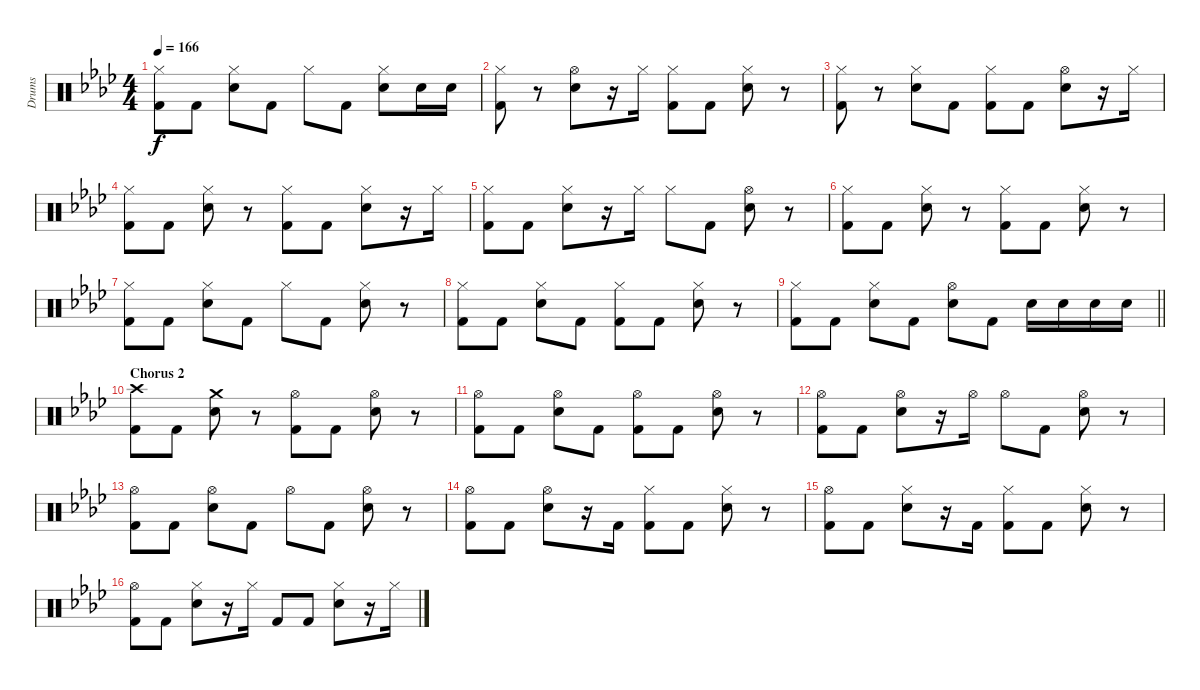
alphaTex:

\track ("Drums" "Drums") {instrument percussion}
\staff {score}
\articulation defaults
\ts (4 4)
\tempo 166
\clef neutral
\ks ab
("Hi-Hat (closed)" "Kick (hit) 2").8{dy f} "Kick (hit) 2".8 ("Hi-Hat (closed)" "Electric Snare (hit)").8 "Kick (hit) 2".8 "Hi-Hat (closed)".8 "Kick (hit) 2".8 ("Hi-Hat (closed)" "Electric Snare (hit)").8 "Electric Snare (hit)".16 "Electric Snare (hit)".16 |
("Hi-Hat (closed)" "Kick (hit) 2").8 r.8 ("Hi-Hat (open)" "Electric Snare (hit)").8 r.16 "Hi-Hat (closed)".16 ("Hi-Hat (closed)" "Kick (hit) 2").8 "Kick (hit) 2".8 ("Hi-Hat (closed)" "Electric Snare (hit)").8 r.8 |
("Hi-Hat (closed)" "Kick (hit) 2").8 r.8 ("Hi-Hat (closed)" "Electric Snare (hit)").8 "Kick (hit) 2".8 ("Hi-Hat (closed)" "Kick (hit) 2").8 "Kick (hit) 2".8 ("Hi-Hat (open)" "Electric Snare (hit)").8 r.16 "Hi-Hat (closed)".16 |
("Hi-Hat (closed)" "Kick (hit) 2").8 "Kick (hit) 2".8 ("Hi-Hat (closed)" "Electric Snare (hit)").8 r.8 ("Hi-Hat (closed)" "Kick (hit) 2").8 "Kick (hit) 2".8 ("Hi-Hat (closed)" "Electric Snare (hit)").8 r.16 "Hi-Hat (closed)".16 |
("Hi-Hat (closed)" "Kick (hit) 2").8 "Kick (hit) 2".8 ("Hi-Hat (closed)" "Electric Snare (hit)").8 r.16 "Hi-Hat (closed)".16 "Hi-Hat (closed)".8 "Kick (hit) 2".8 ("Hi-Hat (open)" "Electric Snare (hit)").8 r.8 |
("Hi-Hat (closed)" "Kick (hit) 2").8 "Kick (hit) 2".8 ("Hi-Hat (closed)" "Electric Snare (hit)").8 r.8 ("Hi-Hat (closed)" "Kick (hit) 2").8 "Kick (hit) 2".8 ("Hi-Hat (closed)" "Electric Snare (hit)").8 r.8 |
("Hi-Hat (closed)" "Kick (hit) 2").8 "Kick (hit) 2".8 ("Hi-Hat (closed)" "Electric Snare (hit)").8 "Kick (hit) 2".8 "Hi-Hat (closed)".8 "Kick (hit) 2".8 ("Hi-Hat (closed)" "Electric Snare (hit)").8 r.8 |
("Hi-Hat (closed)" "Kick (hit) 2").8 "Kick (hit) 2".8 ("Hi-Hat (closed)" "Electric Snare (hit)").8 "Kick (hit) 2".8 ("Hi-Hat (closed)" "Kick (hit) 2").8 "Kick (hit) 2".8 ("Hi-Hat (closed)" "Electric Snare (hit)").8 r.8 |
\barLineRight lightlight
("Hi-Hat (closed)" "Kick (hit) 2").8 "Kick (hit) 2".8 ("Hi-Hat (closed)" "Electric Snare (hit)").8 "Kick (hit) 2".8 ("Hi-Hat (open)" "Electric Snare (hit)").8 "Kick (hit) 2".8 "Electric Snare (hit)".16 "Electric Snare (hit)".16 "Electric Snare (hit)".16 "Electric Snare (hit)".16 |
\section ("" "Chorus 2")
("Crash high (hit)" "Kick (hit) 2").8 "Kick (hit) 2".8 ("Crash medium (hit)" "Electric Snare (hit)").8 r.8 ("Hi-Hat (open)" "Kick (hit) 2").8 "Kick (hit) 2".8 ("Hi-Hat (open)" "Electric Snare (hit)").8 r.8 |
("Hi-Hat (open)" "Kick (hit) 2").8 "Kick (hit) 2".8 ("Hi-Hat (open)" "Electric Snare (hit)").8 "Kick (hit) 2".8 ("Hi-Hat (open)" "Kick (hit) 2").8 "Kick (hit) 2".8 ("Hi-Hat (open)" "Electric Snare (hit)").8 r.8 |
("Hi-Hat (open)" "Kick (hit) 2").8 "Kick (hit) 2".8 ("Hi-Hat (open)" "Electric Snare (hit)").8 r.16 "Hi-Hat (open)".16 "Hi-Hat (open)".8 "Kick (hit) 2".8 ("Hi-Hat (open)" "Electric Snare (hit)").8 r.8 |
("Hi-Hat (open)" "Kick (hit) 2").8 "Kick (hit) 2".8 ("Hi-Hat (open)" "Electric Snare (hit)").8 "Kick (hit) 2".8 "Hi-Hat (open)".8 "Kick (hit) 2".8 ("Hi-Hat (open)" "Electric Snare (hit)").8 r.8 |
("Hi-Hat (open)" "Kick (hit) 2").8 "Kick (hit) 2".8 ("Hi-Hat (open)" "Electric Snare (hit)").8 r.16 "Kick (hit) 2".16 ("Hi-Hat (closed)" "Kick (hit) 2").8 "Kick (hit) 2".8 ("Hi-Hat (closed)" "Electric Snare (hit)").8 r.8 |
("Hi-Hat (open)" "Kick (hit) 2").8 "Kick (hit) 2".8 ("Hi-Hat (closed)" "Electric Snare (hit)").8 r.16 "Kick (hit) 2".16 ("Hi-Hat (closed)" "Kick (hit) 2").8 "Kick (hit) 2".8 ("Hi-Hat (closed)" "Electric Snare (hit)").8 r.8 |
("Hi-Hat (open)" "Kick (hit) 2").8 "Kick (hit) 2".8 ("Hi-Hat (closed)" "Electric Snare (hit)").8 r.16 "Hi-Hat (closed)".16 "Kick (hit) 2".8 "Kick (hit) 2".8 ("Hi-Hat (closed)" "Electric Snare (hit)").8 r.16 "Hi-Hat (closed)".16
